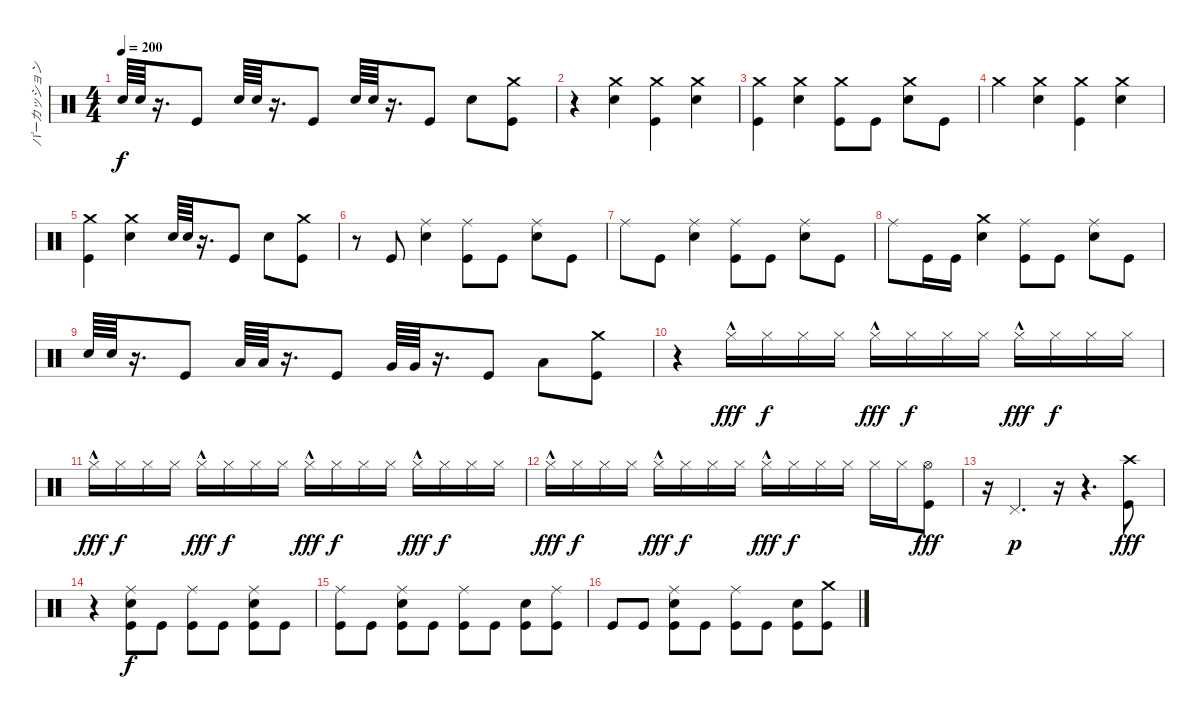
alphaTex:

\track ("パーカッション" "パーカッション") {instrument percussion}
\staff {score}
\articulation defaults
\ts (4 4)
\tempo 200
\clef neutral
\ks c "Snare (hit) 2".64{dy f} "Snare (hit) 2".64
r.16{d} "Kick (hit)".8 "Snare (hit) 2".64 "Snare (hit) 2".64 r.16{d} "Kick (hit)".8 "Snare (hit) 2".64 "Snare (hit) 2".64 r.16{d} "Kick (hit)".8 "Snare (hit) 2".8 ("Crash medium (hit)" "Kick (hit)").8 |
r.4 ("Crash medium (hit)" "Snare (hit) 2").4 ("Crash medium (hit)" "Kick (hit)").4 ("Crash medium (hit)" "Snare (hit) 2").4 |
("Crash medium (hit)" "Kick (hit)").4 ("Snare (hit) 2" "Crash medium (hit)").4 ("Kick (hit)" "Crash medium (hit)").8 "Kick (hit)".8 ("Snare (hit) 2" "Crash medium (hit)").8 "Kick (hit)".8 |
"Crash medium (hit)".4 ("Snare (hit) 2" "Crash medium (hit)").4 ("Crash medium (hit)" "Kick (hit)").4 ("Snare (hit) 2" "Crash medium (hit)").4 |
("Crash medium (hit)" "Kick (hit)").4 ("Snare (hit) 2" "Crash medium (hit)").4 "Snare (hit) 2".64 "Snare (hit) 2".64 r.16{d} "Kick (hit)".8 "Snare (hit) 2".8 ("Crash medium (hit)" "Kick (hit)").8 |
r.8 "Kick (hit)".8 ("Ride (middle)" "Snare (hit) 2").4 ("Ride (middle)" "Kick (hit)").8 "Kick (hit)".8 ("Ride (middle)" "Snare (hit) 2").8 "Kick (hit)".8 |
"Ride (middle)".8 "Kick (hit)".8 ("Snare (hit) 2" "Ride (middle)").4 ("Ride (middle)" "Kick (hit)").8 "Kick (hit)".8 ("Ride (middle)" "Snare (hit) 2").8 "Kick (hit)".8 |
"Ride (middle)".8 "Kick (hit)".16 "Kick (hit)".16 ("Snare (hit) 2" "Crash medium (hit)").4 ("Ride (middle)" "Kick (hit)").8 "Kick (hit)".8 ("Snare (hit) 2" "Ride (middle)").8 "Kick (hit)".8 |
"Snare (hit) 2".64 "Snare (hit) 2".64 r.16{d} "Kick (hit)".8 "Low Tom (hit)".64 "Low Tom (hit)".64 r.16{d} "Kick (hit)".8 "Very Low Tom (hit)".64 "Very Low Tom (hit)".64 r.16{d} "Kick (hit)".8 "Low Floor Tom (hit)".8 ("Kick (hit)" "Crash medium (hit)").8 |
r.4 "Hi-Hat (closed)"{hac}.16{dy fff} "Hi-Hat (closed)".16{dy f} "Hi-Hat (closed)".16 "Hi-Hat (closed)".16 "Hi-Hat (closed)"{hac}.16{dy fff} "Hi-Hat (closed)".16{dy f} "Hi-Hat (closed)".16 "Hi-Hat (closed)".16 "Hi-Hat (closed)"{hac}.16{dy fff} "Hi-Hat (closed)".16{dy f} "Hi-Hat (closed)".16 "Hi-Hat (closed)".16 |
"Hi-Hat (closed)"{hac}.16{dy fff} "Hi-Hat (closed)".16{dy f} "Hi-Hat (closed)".16 "Hi-Hat (closed)".16 "Hi-Hat (closed)"{hac}.16{dy fff} "Hi-Hat (closed)".16{dy f} "Hi-Hat (closed)".16 "Hi-Hat (closed)".16 "Hi-Hat (closed)"{hac}.16{dy fff} "Hi-Hat (closed)".16{dy f} "Hi-Hat (closed)".16 "Hi-Hat (closed)".16 "Hi-Hat (closed)"{hac}.16{dy fff} "Hi-Hat (closed)".16{dy f} "Hi-Hat (closed)".16 "Hi-Hat (closed)".16 |
"Hi-Hat (closed)"{hac}.16{dy fff} "Hi-Hat (closed)".16{dy f} "Hi-Hat (closed)".16 "Hi-Hat (closed)".16 "Hi-Hat (closed)"{hac}.16{dy fff} "Hi-Hat (closed)".16{dy f} "Hi-Hat (closed)".16 "Hi-Hat (closed)".16 "Hi-Hat (closed)"{hac}.16{dy fff} "Hi-Hat (closed)".16{dy f} "Hi-Hat (closed)".16 "Hi-Hat (closed)".16 "Hi-Hat (closed)".16 "Hi-Hat (closed)".16 ("Hi-Hat (open)" "Kick (hit)").8{dy fff} |
r.16 "Pedal Hi-Hat (hit)".4{d dy p} r.16 r.4{d} ("Crash high (hit)" "Kick (hit)").8{dy fff} |
r.4 ("Snare (hit) 2" "Ride (middle)" "Kick (hit)").8{dy f} "Kick (hit)".8 ("Ride (middle)" "Kick (hit)").8 "Kick (hit)".8 ("Kick (hit)" "Snare (hit) 2" "Ride (middle)").8 "Kick (hit)".8 |
("Kick (hit)" "Ride (middle)").8 "Kick (hit)".8 ("Kick (hit)" "Snare (hit) 2" "Ride (middle)").8 "Kick (hit)".8 ("Kick (hit)" "Ride (middle)").8 "Kick (hit)".8 ("Kick (hit)" "Snare (hit) 2").8 ("Kick (hit)" "Ride (middle)").8 |
"Kick (hit)".8 "Kick (hit)".8 ("Kick (hit)" "Ride (middle)" "Snare (hit) 2").8 "Kick (hit)".8 ("Ride (middle)" "Kick (hit)").8 "Kick (hit)".8 ("Kick (hit)" "Snare (hit) 2").8 ("Crash medium (hit)" "Kick (hit)").8
